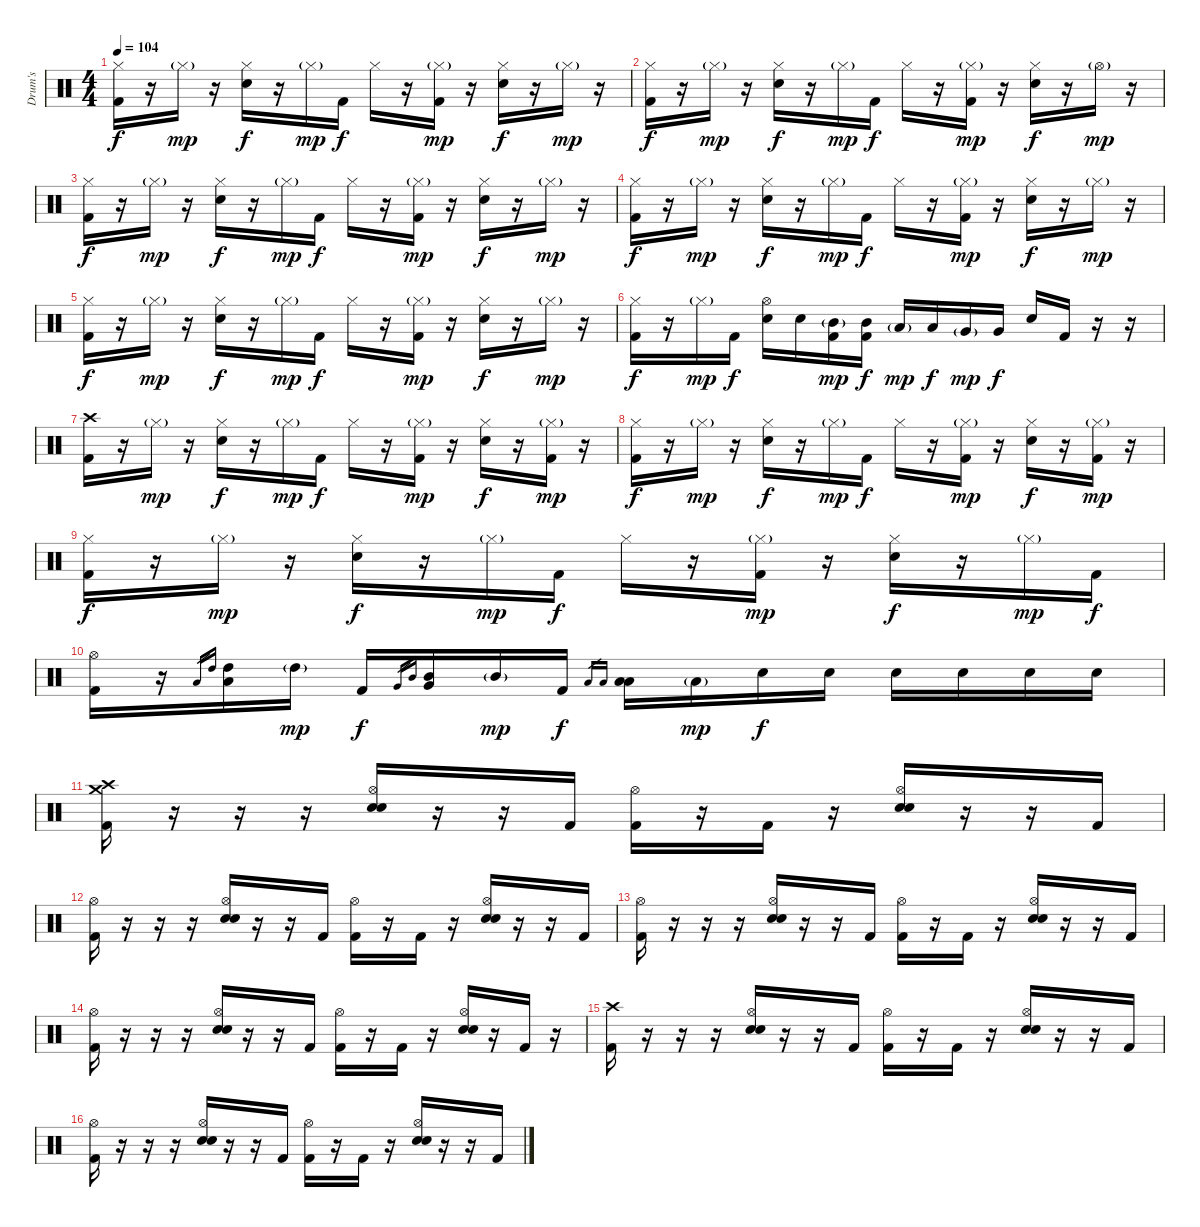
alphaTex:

\track ("Drum's" "Drum's") {instrument percussion}
\staff {score}
\articulation defaults
\ts (4 4)
\tempo 104
\clef neutral
\ks c
("Hi-Hat (closed)" "Kick (hit) 2").16{dy f} r.16 "Hi-Hat (closed)"{g}.16{dy mp} r.16 ("Hi-Hat (closed)" "Snare (hit) 2").16{dy f} r.16 "Hi-Hat (closed)"{g}.16{dy mp} "Kick (hit) 2".16{dy f} "Hi-Hat (closed)".16 r.16 ("Hi-Hat (closed)"{g} "Kick (hit) 2").16{dy mp} r.16 ("Hi-Hat (closed)" "Snare (hit) 2").16{dy f} r.16 "Hi-Hat (closed)"{g}.16{dy mp} r.16 |
("Hi-Hat (closed)" "Kick (hit) 2").16{dy f} r.16 "Hi-Hat (closed)"{g}.16{dy mp} r.16 ("Hi-Hat (closed)" "Snare (hit) 2").16{dy f} r.16 "Hi-Hat (closed)"{g}.16{dy mp} "Kick (hit) 2".16{dy f} "Hi-Hat (closed)".16 r.16 ("Hi-Hat (closed)"{g} "Kick (hit) 2").16{dy mp} r.16 ("Hi-Hat (closed)" "Snare (hit) 2").16{dy f} r.16 "Hi-Hat (open)"{g}.16{dy mp} r.16 |
("Hi-Hat (closed)" "Kick (hit) 2").16{dy f} r.16 "Hi-Hat (closed)"{g}.16{dy mp} r.16 ("Hi-Hat (closed)" "Snare (hit) 2").16{dy f} r.16 "Hi-Hat (closed)"{g}.16{dy mp} "Kick (hit) 2".16{dy f} "Hi-Hat (closed)".16 r.16 ("Hi-Hat (closed)"{g} "Kick (hit) 2").16{dy mp} r.16 ("Hi-Hat (closed)" "Snare (hit) 2").16{dy f} r.16 "Hi-Hat (closed)"{g}.16{dy mp} r.16 |
("Hi-Hat (closed)" "Kick (hit) 2").16{dy f} r.16 "Hi-Hat (closed)"{g}.16{dy mp} r.16 ("Hi-Hat (closed)" "Snare (hit) 2").16{dy f} r.16 "Hi-Hat (closed)"{g}.16{dy mp} "Kick (hit) 2".16{dy f} "Hi-Hat (closed)".16 r.16 ("Hi-Hat (closed)"{g} "Kick (hit) 2").16{dy mp} r.16 ("Hi-Hat (closed)" "Snare (hit) 2").16{dy f} r.16 "Hi-Hat (closed)"{g}.16{dy mp} r.16 |
("Hi-Hat (closed)" "Kick (hit) 2").16{dy f} r.16 "Hi-Hat (closed)"{g}.16{dy mp} r.16 ("Hi-Hat (closed)" "Snare (hit) 2").16{dy f} r.16 "Hi-Hat (closed)"{g}.16{dy mp} "Kick (hit) 2".16{dy f} "Hi-Hat (closed)".16 r.16 ("Hi-Hat (closed)"{g} "Kick (hit) 2").16{dy mp} r.16 ("Hi-Hat (closed)" "Snare (hit) 2").16{dy f} r.16 "Hi-Hat (closed)"{g}.16{dy mp} r.16 |
("Hi-Hat (closed)" "Kick (hit) 2").16{dy f} r.16 "Hi-Hat (closed)"{g}.16{dy mp} "Kick (hit) 2".16{dy f} ("Hi-Hat (open)" "Snare (hit) 2").16 "Snare (hit) 2".16 ("Mid Tom (hit)"{g} "Kick (hit) 2").16{dy mp} ("Mid Tom (hit)" "Kick (hit) 2").16{dy f} "Low Tom (hit)"{g}.16{dy mp} "Low Tom (hit)".16{dy f} "Very Low Tom (hit)"{g}.16{dy mp} "Very Low Tom (hit)".16{dy f} "Snare (hit) 2".16 "Kick (hit) 2".16 r.16 r.16 |
("Crash high (hit)" "Kick (hit) 2").16 r.16 "Hi-Hat (closed)"{g}.16{dy mp} r.16 ("Hi-Hat (closed)" "Snare (hit) 2").16{dy f} r.16 "Hi-Hat (closed)"{g}.16{dy mp} "Kick (hit) 2".16{dy f} "Hi-Hat (closed)".16 r.16 ("Hi-Hat (closed)"{g} "Kick (hit) 2").16{dy mp} r.16 ("Hi-Hat (closed)" "Snare (hit) 2").16{dy f} r.16 ("Hi-Hat (closed)"{g} "Kick (hit) 2").16{dy mp} r.16 |
("Hi-Hat (closed)" "Kick (hit) 2").16{dy f} r.16 "Hi-Hat (closed)"{g}.16{dy mp} r.16 ("Hi-Hat (closed)" "Snare (hit) 2").16{dy f} r.16 "Hi-Hat (closed)"{g}.16{dy mp} "Kick (hit) 2".16{dy f} "Hi-Hat (closed)".16 r.16 ("Hi-Hat (closed)"{g} "Kick (hit) 2").16{dy mp} r.16 ("Hi-Hat (closed)" "Snare (hit) 2").16{dy f} r.16 ("Hi-Hat (closed)"{g} "Kick (hit) 2").16{dy mp} r.16 |
("Hi-Hat (closed)" "Kick (hit) 2").16{dy f} r.16 "Hi-Hat (closed)"{g}.16{dy mp} r.16 ("Hi-Hat (closed)" "Snare (hit) 2").16{dy f} r.16 "Hi-Hat (closed)"{g}.16{dy mp} "Kick (hit) 2".16{dy f} "Hi-Hat (closed)".16 r.16 ("Hi-Hat (closed)"{g} "Kick (hit) 2").16{dy mp} r.16 ("Hi-Hat (closed)" "Snare (hit) 2").16{dy f} r.16 "Hi-Hat (closed)"{g}.16{dy mp} "Kick (hit) 2".16{dy f} |
("Hi-Hat (open)" "Kick (hit) 2").16 r.16 "Low Tom (hit)".16{gr} "High Tom (hit)".16{gr} ("Low Tom (hit)" "High Tom (hit)").16 "High Tom (hit)"{g}.16{dy mp} "Kick (hit) 2".16{dy f} "Very Low Tom (hit)".16{gr} "Mid Tom (hit)".16{gr} ("Very Low Tom (hit)" "Mid Tom (hit)").16 "Mid Tom (hit)"{g}.16{dy mp} "Kick (hit) 2".16{dy f} "Low Floor Tom (hit)".16{gr} "Low Tom (hit)".16{gr} ("Low Floor Tom (hit)" "Low Tom (hit)").16 "Low Tom (hit)"{g}.16{dy mp} "Snare (hit) 2".16{dy f} "Snare (hit) 2".16 "Snare (hit) 2".16 "Snare (hit) 2".16 "Snare (hit) 2".16 "Snare (hit) 2".16 |
("Crash medium (hit)" "Crash high (hit)" "Kick (hit) 2").16 r.16 r.16 r.16 ("Hi-Hat (open)" "Electric Snare (hit)" "Snare (hit) 2").16 r.16 r.16 "Kick (hit) 2".16 ("Hi-Hat (open)" "Kick (hit) 2").16 r.16 "Kick (hit) 2".16 r.16 ("Hi-Hat (open)" "Electric Snare (hit)" "Snare (hit) 2").16 r.16 r.16 "Kick (hit) 2".16 |
("Hi-Hat (open)" "Kick (hit) 2").16 r.16 r.16 r.16 ("Hi-Hat (open)" "Electric Snare (hit)" "Snare (hit) 2").16 r.16 r.16 "Kick (hit) 2".16 ("Hi-Hat (open)" "Kick (hit) 2").16 r.16 "Kick (hit) 2".16 r.16 ("Hi-Hat (open)" "Electric Snare (hit)" "Snare (hit) 2").16 r.16 r.16 "Kick (hit) 2".16 |
("Hi-Hat (open)" "Kick (hit) 2").16 r.16 r.16 r.16 ("Hi-Hat (open)" "Electric Snare (hit)" "Snare (hit) 2").16 r.16 r.16 "Kick (hit) 2".16 ("Hi-Hat (open)" "Kick (hit) 2").16 r.16 "Kick (hit) 2".16 r.16 ("Hi-Hat (open)" "Electric Snare (hit)" "Snare (hit) 2").16 r.16 r.16 "Kick (hit) 2".16 |
("Hi-Hat (open)" "Kick (hit) 2").16 r.16 r.16 r.16 ("Hi-Hat (open)" "Electric Snare (hit)" "Snare (hit) 2").16 r.16 r.16 "Kick (hit) 2".16 ("Hi-Hat (open)" "Kick (hit) 2").16 r.16 "Kick (hit) 2".16 r.16 ("Hi-Hat (open)" "Electric Snare (hit)" "Snare (hit) 2").16 r.16 "Kick (hit) 2".16 r.16 |
("Crash high (hit)" "Kick (hit) 2").16 r.16 r.16 r.16 ("Hi-Hat (open)" "Electric Snare (hit)" "Snare (hit) 2").16 r.16 r.16 "Kick (hit) 2".16 ("Hi-Hat (open)" "Kick (hit) 2").16 r.16 "Kick (hit) 2".16 r.16 ("Hi-Hat (open)" "Electric Snare (hit)" "Snare (hit) 2").16 r.16 r.16 "Kick (hit) 2".16 |
("Hi-Hat (open)" "Kick (hit) 2").16 r.16 r.16 r.16 ("Hi-Hat (open)" "Electric Snare (hit)" "Snare (hit) 2").16 r.16 r.16 "Kick (hit) 2".16 ("Hi-Hat (open)" "Kick (hit) 2").16 r.16 "Kick (hit) 2".16 r.16 ("Hi-Hat (open)" "Electric Snare (hit)" "Snare (hit) 2").16 r.16 r.16 "Kick (hit) 2".16
